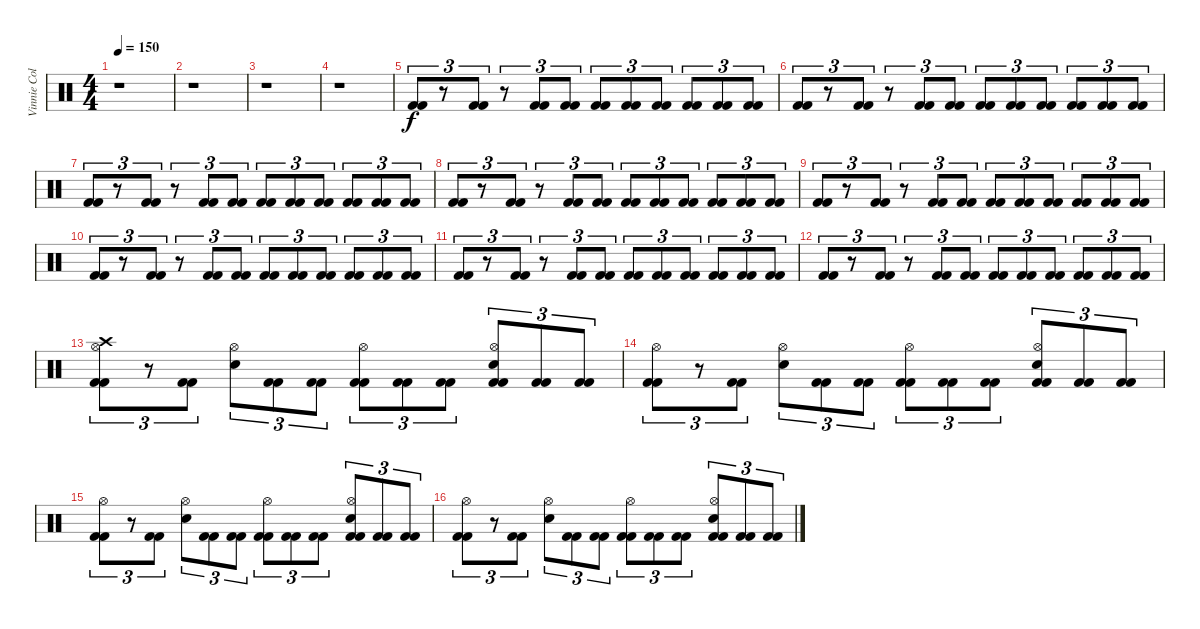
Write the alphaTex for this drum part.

\track ("Vinnie Colaiuta" "Vinnie Col") {instrument percussion}
\staff {score}
\articulation defaults
\ts (4 4)
\tempo 150
\clef neutral
\ks c
r.1{dy f} |
r.1 |
r.1 |
r.1 |
("Kick (hit) 2" "Kick (hit) 2").8{tu (3 2)} r.8{tu (3 2)} ("Kick (hit) 2" "Kick (hit) 2").8{tu (3 2)} r.8{tu (3 2)} ("Kick (hit) 2" "Kick (hit) 2").8{tu (3 2)} ("Kick (hit) 2" "Kick (hit) 2").8{tu (3 2)} ("Kick (hit) 2" "Kick (hit) 2").8{tu (3 2)} ("Kick (hit) 2" "Kick (hit) 2").8{tu (3 2)} ("Kick (hit) 2" "Kick (hit) 2").8{tu (3 2)} ("Kick (hit) 2" "Kick (hit) 2").8{tu (3 2)} ("Kick (hit) 2" "Kick (hit) 2").8{tu (3 2)} ("Kick (hit) 2" "Kick (hit) 2").8{tu (3 2)} |
("Kick (hit) 2" "Kick (hit) 2").8{tu (3 2)} r.8{tu (3 2)} ("Kick (hit) 2" "Kick (hit) 2").8{tu (3 2)} r.8{tu (3 2)} ("Kick (hit) 2" "Kick (hit) 2").8{tu (3 2)} ("Kick (hit) 2" "Kick (hit) 2").8{tu (3 2)} ("Kick (hit) 2" "Kick (hit) 2").8{tu (3 2)} ("Kick (hit) 2" "Kick (hit) 2").8{tu (3 2)} ("Kick (hit) 2" "Kick (hit) 2").8{tu (3 2)} ("Kick (hit) 2" "Kick (hit) 2").8{tu (3 2)} ("Kick (hit) 2" "Kick (hit) 2").8{tu (3 2)} ("Kick (hit) 2" "Kick (hit) 2").8{tu (3 2)} |
("Kick (hit) 2" "Kick (hit) 2").8{tu (3 2)} r.8{tu (3 2)} ("Kick (hit) 2" "Kick (hit) 2").8{tu (3 2)} r.8{tu (3 2)} ("Kick (hit) 2" "Kick (hit) 2").8{tu (3 2)} ("Kick (hit) 2" "Kick (hit) 2").8{tu (3 2)} ("Kick (hit) 2" "Kick (hit) 2").8{tu (3 2)} ("Kick (hit) 2" "Kick (hit) 2").8{tu (3 2)} ("Kick (hit) 2" "Kick (hit) 2").8{tu (3 2)} ("Kick (hit) 2" "Kick (hit) 2").8{tu (3 2)} ("Kick (hit) 2" "Kick (hit) 2").8{tu (3 2)} ("Kick (hit) 2" "Kick (hit) 2").8{tu (3 2)} |
("Kick (hit) 2" "Kick (hit) 2").8{tu (3 2)} r.8{tu (3 2)} ("Kick (hit) 2" "Kick (hit) 2").8{tu (3 2)} r.8{tu (3 2)} ("Kick (hit) 2" "Kick (hit) 2").8{tu (3 2)} ("Kick (hit) 2" "Kick (hit) 2").8{tu (3 2)} ("Kick (hit) 2" "Kick (hit) 2").8{tu (3 2)} ("Kick (hit) 2" "Kick (hit) 2").8{tu (3 2)} ("Kick (hit) 2" "Kick (hit) 2").8{tu (3 2)} ("Kick (hit) 2" "Kick (hit) 2").8{tu (3 2)} ("Kick (hit) 2" "Kick (hit) 2").8{tu (3 2)} ("Kick (hit) 2" "Kick (hit) 2").8{tu (3 2)} |
("Kick (hit) 2" "Kick (hit) 2").8{tu (3 2)} r.8{tu (3 2)} ("Kick (hit) 2" "Kick (hit) 2").8{tu (3 2)} r.8{tu (3 2)} ("Kick (hit) 2" "Kick (hit) 2").8{tu (3 2)} ("Kick (hit) 2" "Kick (hit) 2").8{tu (3 2)} ("Kick (hit) 2" "Kick (hit) 2").8{tu (3 2)} ("Kick (hit) 2" "Kick (hit) 2").8{tu (3 2)} ("Kick (hit) 2" "Kick (hit) 2").8{tu (3 2)} ("Kick (hit) 2" "Kick (hit) 2").8{tu (3 2)} ("Kick (hit) 2" "Kick (hit) 2").8{tu (3 2)} ("Kick (hit) 2" "Kick (hit) 2").8{tu (3 2)} |
("Kick (hit) 2" "Kick (hit) 2").8{tu (3 2)} r.8{tu (3 2)} ("Kick (hit) 2" "Kick (hit) 2").8{tu (3 2)} r.8{tu (3 2)} ("Kick (hit) 2" "Kick (hit) 2").8{tu (3 2)} ("Kick (hit) 2" "Kick (hit) 2").8{tu (3 2)} ("Kick (hit) 2" "Kick (hit) 2").8{tu (3 2)} ("Kick (hit) 2" "Kick (hit) 2").8{tu (3 2)} ("Kick (hit) 2" "Kick (hit) 2").8{tu (3 2)} ("Kick (hit) 2" "Kick (hit) 2").8{tu (3 2)} ("Kick (hit) 2" "Kick (hit) 2").8{tu (3 2)} ("Kick (hit) 2" "Kick (hit) 2").8{tu (3 2)} |
("Kick (hit) 2" "Kick (hit) 2").8{tu (3 2)} r.8{tu (3 2)} ("Kick (hit) 2" "Kick (hit) 2").8{tu (3 2)} r.8{tu (3 2)} ("Kick (hit) 2" "Kick (hit) 2").8{tu (3 2)} ("Kick (hit) 2" "Kick (hit) 2").8{tu (3 2)} ("Kick (hit) 2" "Kick (hit) 2").8{tu (3 2)} ("Kick (hit) 2" "Kick (hit) 2").8{tu (3 2)} ("Kick (hit) 2" "Kick (hit) 2").8{tu (3 2)} ("Kick (hit) 2" "Kick (hit) 2").8{tu (3 2)} ("Kick (hit) 2" "Kick (hit) 2").8{tu (3 2)} ("Kick (hit) 2" "Kick (hit) 2").8{tu (3 2)} |
("Kick (hit) 2" "Kick (hit) 2").8{tu (3 2)} r.8{tu (3 2)} ("Kick (hit) 2" "Kick (hit) 2").8{tu (3 2)} r.8{tu (3 2)} ("Kick (hit) 2" "Kick (hit) 2").8{tu (3 2)} ("Kick (hit) 2" "Kick (hit) 2").8{tu (3 2)} ("Kick (hit) 2" "Kick (hit) 2").8{tu (3 2)} ("Kick (hit) 2" "Kick (hit) 2").8{tu (3 2)} ("Kick (hit) 2" "Kick (hit) 2").8{tu (3 2)} ("Kick (hit) 2" "Kick (hit) 2").8{tu (3 2)} ("Kick (hit) 2" "Kick (hit) 2").8{tu (3 2)} ("Kick (hit) 2" "Kick (hit) 2").8{tu (3 2)} |
("Hi-Hat (open)" "Crash high (hit)" "Kick (hit) 2" "Kick (hit) 2").8{tu (3 2)} r.8{tu (3 2)} ("Kick (hit) 2" "Kick (hit) 2").8{tu (3 2)} ("Hi-Hat (open)" "Snare (hit) 2").8{tu (3 2)} ("Kick (hit) 2" "Kick (hit) 2").8{tu (3 2)} ("Kick (hit) 2" "Kick (hit) 2").8{tu (3 2)} ("Hi-Hat (open)" "Kick (hit) 2" "Kick (hit) 2").8{tu (3 2)} ("Kick (hit) 2" "Kick (hit) 2").8{tu (3 2)} ("Kick (hit) 2" "Kick (hit) 2").8{tu (3 2)} ("Hi-Hat (open)" "Snare (hit) 2" "Kick (hit) 2" "Kick (hit) 2").8{tu (3 2)} ("Kick (hit) 2" "Kick (hit) 2").8{tu (3 2)} ("Kick (hit) 2" "Kick (hit) 2").8{tu (3 2)} |
("Hi-Hat (open)" "Kick (hit) 2" "Kick (hit) 2").8{tu (3 2)} r.8{tu (3 2)} ("Kick (hit) 2" "Kick (hit) 2").8{tu (3 2)} ("Hi-Hat (open)" "Snare (hit) 2").8{tu (3 2)} ("Kick (hit) 2" "Kick (hit) 2").8{tu (3 2)} ("Kick (hit) 2" "Kick (hit) 2").8{tu (3 2)} ("Hi-Hat (open)" "Kick (hit) 2" "Kick (hit) 2").8{tu (3 2)} ("Kick (hit) 2" "Kick (hit) 2").8{tu (3 2)} ("Kick (hit) 2" "Kick (hit) 2").8{tu (3 2)} ("Hi-Hat (open)" "Snare (hit) 2" "Kick (hit) 2" "Kick (hit) 2").8{tu (3 2)} ("Kick (hit) 2" "Kick (hit) 2").8{tu (3 2)} ("Kick (hit) 2" "Kick (hit) 2").8{tu (3 2)} |
("Hi-Hat (open)" "Kick (hit) 2" "Kick (hit) 2").8{tu (3 2)} r.8{tu (3 2)} ("Kick (hit) 2" "Kick (hit) 2").8{tu (3 2)} ("Hi-Hat (open)" "Snare (hit) 2").8{tu (3 2)} ("Kick (hit) 2" "Kick (hit) 2").8{tu (3 2)} ("Kick (hit) 2" "Kick (hit) 2").8{tu (3 2)} ("Hi-Hat (open)" "Kick (hit) 2" "Kick (hit) 2").8{tu (3 2)} ("Kick (hit) 2" "Kick (hit) 2").8{tu (3 2)} ("Kick (hit) 2" "Kick (hit) 2").8{tu (3 2)} ("Hi-Hat (open)" "Snare (hit) 2" "Kick (hit) 2" "Kick (hit) 2").8{tu (3 2)} ("Kick (hit) 2" "Kick (hit) 2").8{tu (3 2)} ("Kick (hit) 2" "Kick (hit) 2").8{tu (3 2)} |
("Hi-Hat (open)" "Kick (hit) 2" "Kick (hit) 2").8{tu (3 2)} r.8{tu (3 2)} ("Kick (hit) 2" "Kick (hit) 2").8{tu (3 2)} ("Hi-Hat (open)" "Snare (hit) 2").8{tu (3 2)} ("Kick (hit) 2" "Kick (hit) 2").8{tu (3 2)} ("Kick (hit) 2" "Kick (hit) 2").8{tu (3 2)} ("Hi-Hat (open)" "Kick (hit) 2" "Kick (hit) 2").8{tu (3 2)} ("Kick (hit) 2" "Kick (hit) 2").8{tu (3 2)} ("Kick (hit) 2" "Kick (hit) 2").8{tu (3 2)} ("Hi-Hat (open)" "Snare (hit) 2" "Kick (hit) 2" "Kick (hit) 2").8{tu (3 2)} ("Kick (hit) 2" "Kick (hit) 2").8{tu (3 2)} ("Kick (hit) 2" "Kick (hit) 2").8{tu (3 2)}
